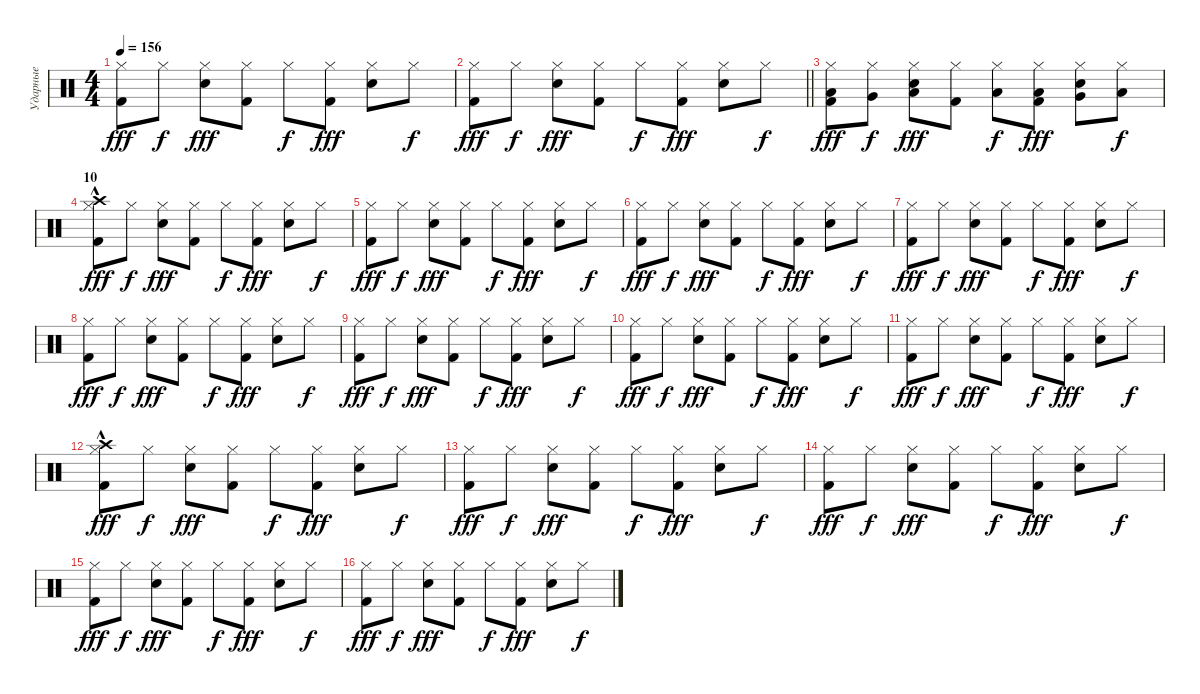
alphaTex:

\track ("Ударные" "Ударные") {instrument percussion}
\staff {score}
\articulation defaults
\ts (4 4)
\tempo 156
\clef neutral
\ks c
("Hi-Hat (closed)" "Kick (hit) 2").8{dy fff} "Hi-Hat (closed)".8{dy f} ("Hi-Hat (closed)" "Snare (hit) 2").8{dy fff} ("Hi-Hat (closed)" "Kick (hit) 2").8 "Hi-Hat (closed)".8{dy f} ("Hi-Hat (closed)" "Kick (hit) 2").8{dy fff} ("Hi-Hat (closed)" "Snare (hit) 2").8 "Hi-Hat (closed)".8{dy f} |
\barLineRight lightlight
("Hi-Hat (closed)" "Kick (hit) 2").8{dy fff} "Hi-Hat (closed)".8{dy f} ("Hi-Hat (closed)" "Snare (hit) 2").8{dy fff} ("Hi-Hat (closed)" "Kick (hit) 2").8 "Hi-Hat (closed)".8{dy f} ("Hi-Hat (closed)" "Kick (hit) 2").8{dy fff} ("Hi-Hat (closed)" "Snare (hit) 2").8 "Hi-Hat (closed)".8{dy f} |
("Hi-Hat (closed)" "Kick (hit) 2" "Low Floor Tom (hit)").8{dy fff} ("Hi-Hat (closed)" "Very Low Tom (hit)").8{dy f} ("Hi-Hat (closed)" "Snare (hit) 2" "Low Tom (hit)").8{dy fff} ("Hi-Hat (closed)" "Kick (hit) 2").8 ("Hi-Hat (closed)" "Low Floor Tom (hit)").8{dy f} ("Hi-Hat (closed)" "Kick (hit) 2" "Low Floor Tom (hit)").8{dy fff} ("Hi-Hat (closed)" "Snare (hit) 2" "Very Low Tom (hit)").8 ("Hi-Hat (closed)" "Low Tom (hit)").8{dy f} |
\section ("" "10")
("Hi-Hat (closed)" "Kick (hit) 2" "Crash high (hit)"{hac}).8{dy fff} "Hi-Hat (closed)".8{dy f} ("Hi-Hat (closed)" "Snare (hit) 2").8{dy fff} ("Hi-Hat (closed)" "Kick (hit) 2").8 "Hi-Hat (closed)".8{dy f} ("Hi-Hat (closed)" "Kick (hit) 2").8{dy fff} ("Hi-Hat (closed)" "Snare (hit) 2").8 "Hi-Hat (closed)".8{dy f} |
("Hi-Hat (closed)" "Kick (hit) 2").8{dy fff} "Hi-Hat (closed)".8{dy f} ("Hi-Hat (closed)" "Snare (hit) 2").8{dy fff} ("Hi-Hat (closed)" "Kick (hit) 2").8 "Hi-Hat (closed)".8{dy f} ("Hi-Hat (closed)" "Kick (hit) 2").8{dy fff} ("Hi-Hat (closed)" "Snare (hit) 2").8 "Hi-Hat (closed)".8{dy f} |
("Hi-Hat (closed)" "Kick (hit) 2").8{dy fff} "Hi-Hat (closed)".8{dy f} ("Hi-Hat (closed)" "Snare (hit) 2").8{dy fff} ("Hi-Hat (closed)" "Kick (hit) 2").8 "Hi-Hat (closed)".8{dy f} ("Hi-Hat (closed)" "Kick (hit) 2").8{dy fff} ("Hi-Hat (closed)" "Snare (hit) 2").8 "Hi-Hat (closed)".8{dy f} |
("Hi-Hat (closed)" "Kick (hit) 2").8{dy fff} "Hi-Hat (closed)".8{dy f} ("Hi-Hat (closed)" "Snare (hit) 2").8{dy fff} ("Hi-Hat (closed)" "Kick (hit) 2").8 "Hi-Hat (closed)".8{dy f} ("Hi-Hat (closed)" "Kick (hit) 2").8{dy fff} ("Hi-Hat (closed)" "Snare (hit) 2").8 "Hi-Hat (closed)".8{dy f} |
("Hi-Hat (closed)" "Kick (hit) 2").8{dy fff} "Hi-Hat (closed)".8{dy f} ("Hi-Hat (closed)" "Snare (hit) 2").8{dy fff} ("Hi-Hat (closed)" "Kick (hit) 2").8 "Hi-Hat (closed)".8{dy f} ("Hi-Hat (closed)" "Kick (hit) 2").8{dy fff} ("Hi-Hat (closed)" "Snare (hit) 2").8 "Hi-Hat (closed)".8{dy f} |
("Hi-Hat (closed)" "Kick (hit) 2").8{dy fff} "Hi-Hat (closed)".8{dy f} ("Hi-Hat (closed)" "Snare (hit) 2").8{dy fff} ("Hi-Hat (closed)" "Kick (hit) 2").8 "Hi-Hat (closed)".8{dy f} ("Hi-Hat (closed)" "Kick (hit) 2").8{dy fff} ("Hi-Hat (closed)" "Snare (hit) 2").8 "Hi-Hat (closed)".8{dy f} |
("Hi-Hat (closed)" "Kick (hit) 2").8{dy fff} "Hi-Hat (closed)".8{dy f} ("Hi-Hat (closed)" "Snare (hit) 2").8{dy fff} ("Hi-Hat (closed)" "Kick (hit) 2").8 "Hi-Hat (closed)".8{dy f} ("Hi-Hat (closed)" "Kick (hit) 2").8{dy fff} ("Hi-Hat (closed)" "Snare (hit) 2").8 "Hi-Hat (closed)".8{dy f} |
("Hi-Hat (closed)" "Kick (hit) 2").8{dy fff} "Hi-Hat (closed)".8{dy f} ("Hi-Hat (closed)" "Snare (hit) 2").8{dy fff} ("Hi-Hat (closed)" "Kick (hit) 2").8 "Hi-Hat (closed)".8{dy f} ("Hi-Hat (closed)" "Kick (hit) 2").8{dy fff} ("Hi-Hat (closed)" "Snare (hit) 2").8 "Hi-Hat (closed)".8{dy f} |
("Hi-Hat (closed)" "Kick (hit) 2" "Crash high (hit)"{hac}).8{dy fff} "Hi-Hat (closed)".8{dy f} ("Hi-Hat (closed)" "Snare (hit) 2").8{dy fff} ("Hi-Hat (closed)" "Kick (hit) 2").8 "Hi-Hat (closed)".8{dy f} ("Hi-Hat (closed)" "Kick (hit) 2").8{dy fff} ("Hi-Hat (closed)" "Snare (hit) 2").8 "Hi-Hat (closed)".8{dy f} |
("Hi-Hat (closed)" "Kick (hit) 2").8{dy fff} "Hi-Hat (closed)".8{dy f} ("Hi-Hat (closed)" "Snare (hit) 2").8{dy fff} ("Hi-Hat (closed)" "Kick (hit) 2").8 "Hi-Hat (closed)".8{dy f} ("Hi-Hat (closed)" "Kick (hit) 2").8{dy fff} ("Hi-Hat (closed)" "Snare (hit) 2").8 "Hi-Hat (closed)".8{dy f} |
("Hi-Hat (closed)" "Kick (hit) 2").8{dy fff} "Hi-Hat (closed)".8{dy f} ("Hi-Hat (closed)" "Snare (hit) 2").8{dy fff} ("Hi-Hat (closed)" "Kick (hit) 2").8 "Hi-Hat (closed)".8{dy f} ("Hi-Hat (closed)" "Kick (hit) 2").8{dy fff} ("Hi-Hat (closed)" "Snare (hit) 2").8 "Hi-Hat (closed)".8{dy f} |
("Hi-Hat (closed)" "Kick (hit) 2").8{dy fff} "Hi-Hat (closed)".8{dy f} ("Hi-Hat (closed)" "Snare (hit) 2").8{dy fff} ("Hi-Hat (closed)" "Kick (hit) 2").8 "Hi-Hat (closed)".8{dy f} ("Hi-Hat (closed)" "Kick (hit) 2").8{dy fff} ("Hi-Hat (closed)" "Snare (hit) 2").8 "Hi-Hat (closed)".8{dy f} |
("Hi-Hat (closed)" "Kick (hit) 2").8{dy fff} "Hi-Hat (closed)".8{dy f} ("Hi-Hat (closed)" "Snare (hit) 2").8{dy fff} ("Hi-Hat (closed)" "Kick (hit) 2").8 "Hi-Hat (closed)".8{dy f} ("Hi-Hat (closed)" "Kick (hit) 2").8{dy fff} ("Hi-Hat (closed)" "Snare (hit) 2").8 "Hi-Hat (closed)".8{dy f}
